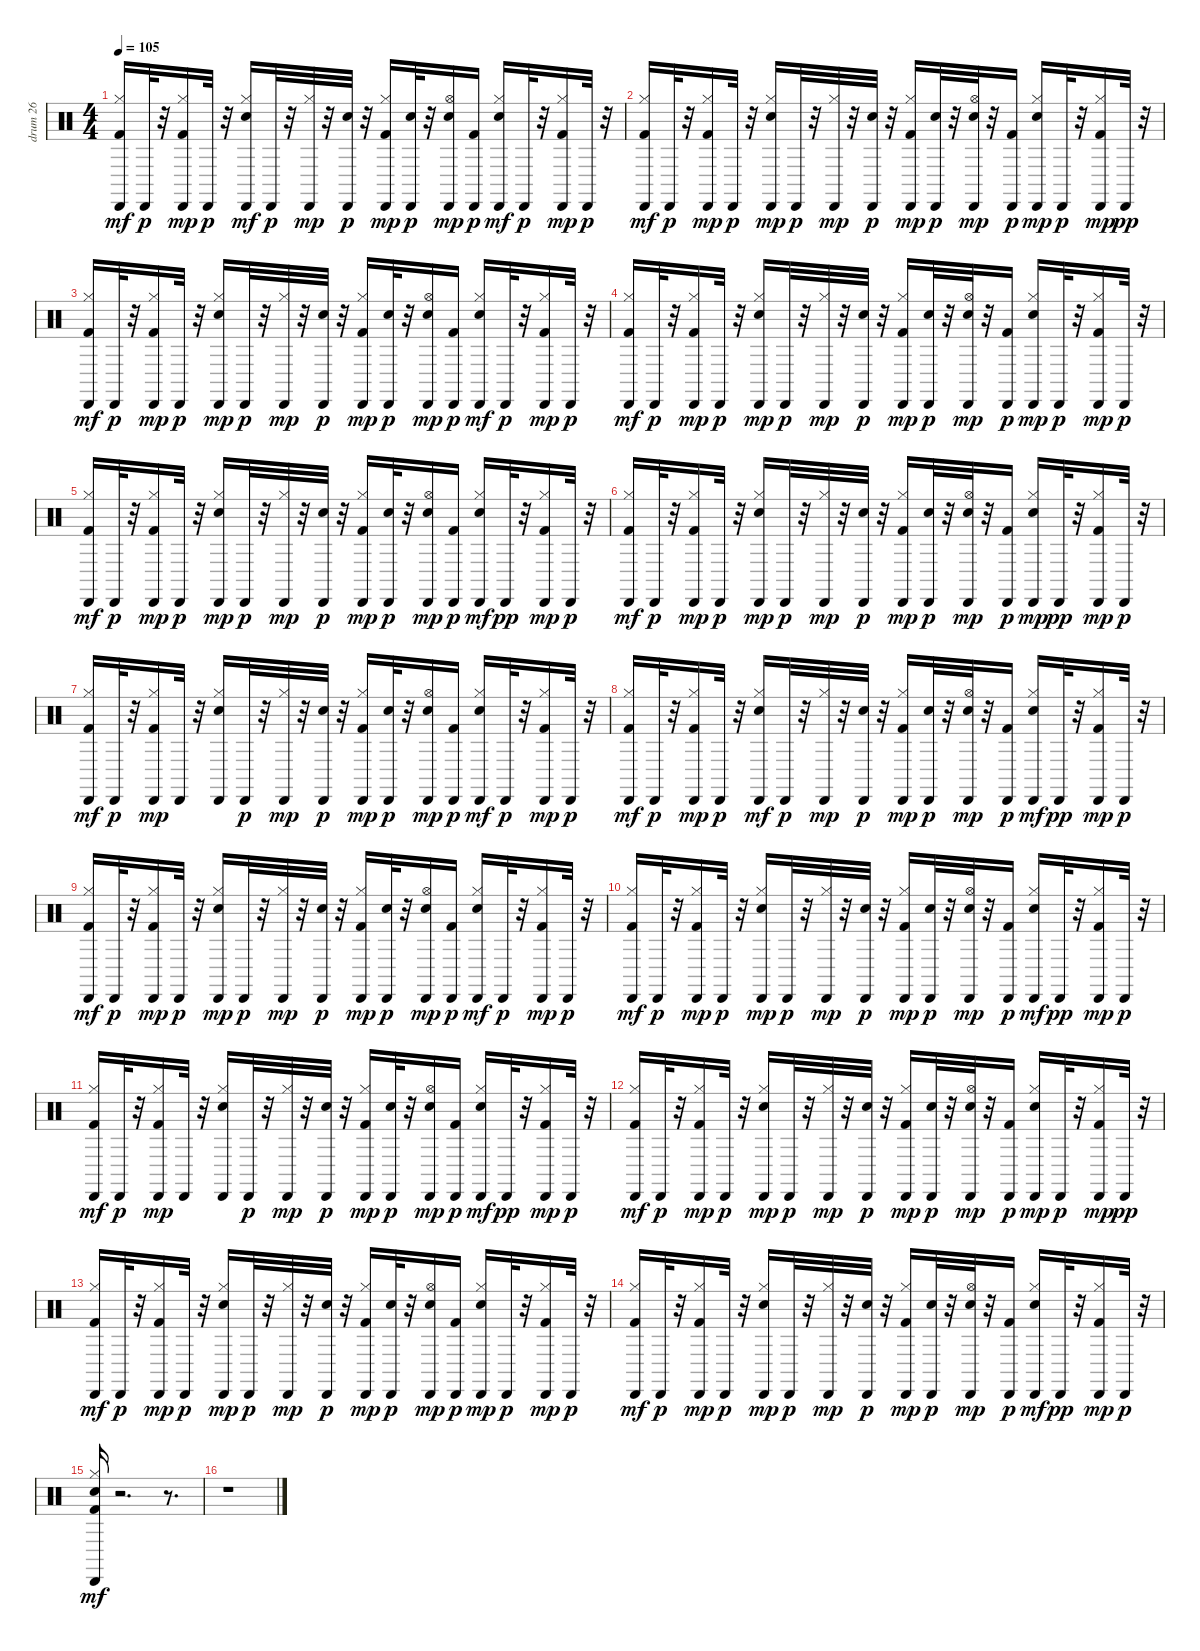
\track ("drum 26" "drum 26") {instrument percussion}
\staff {score}
\articulation defaults
\ts (4 4)
\tempo 105
\clef neutral
\ks c
("Kick (hit) 2" "Hi-Hat (closed)" "Cabasa (hit)").16{dy mf} "Cabasa (hit)".32{dy p} r.32 ("Kick (hit) 2" "Hi-Hat (closed)" "Cabasa (hit)").16{dy mp} "Cabasa (hit)".32{dy p} r.32 ("Snare (hit) 2" "Hi-Hat (closed)" "Cabasa (hit)").16{dy mf} "Cabasa (hit)".32{dy p} r.32 ("Hi-Hat (closed)" "Cabasa (hit)").32{dy mp} r.32 ("Electric Snare (hit)" "Cabasa (hit)").32{dy p} r.32 ("Kick (hit) 2" "Hi-Hat (closed)" "Cabasa (hit)").16{dy mp} ("Electric Snare (hit)" "Cabasa (hit)").32{dy p} r.32 ("Electric Snare (hit)" "Hi-Hat (open)" "Cabasa (hit)").16{dy mp} ("Kick (hit) 2" "Cabasa (hit)").16{dy p} ("Snare (hit) 2" "Hi-Hat (closed)" "Cabasa (hit)").16{dy mf} "Cabasa (hit)".32{dy p} r.32 ("Kick (hit) 2" "Hi-Hat (closed)" "Cabasa (hit)").16{dy mp} "Cabasa (hit)".32{dy p} r.32 |
("Kick (hit) 2" "Hi-Hat (closed)" "Cabasa (hit)").16{dy mf} "Cabasa (hit)".32{dy p} r.32 ("Kick (hit) 2" "Hi-Hat (closed)" "Cabasa (hit)").16{dy mp} "Cabasa (hit)".32{dy p} r.32 ("Snare (hit) 2" "Hi-Hat (closed)" "Cabasa (hit)").16{dy mp} "Cabasa (hit)".32{dy p} r.32 ("Hi-Hat (closed)" "Cabasa (hit)").32{dy mp} r.32 ("Electric Snare (hit)" "Cabasa (hit)").32{dy p} r.32 ("Kick (hit) 2" "Hi-Hat (closed)" "Cabasa (hit)").16{dy mp} ("Electric Snare (hit)" "Cabasa (hit)").32{dy p} r.32 ("Electric Snare (hit)" "Hi-Hat (open)" "Cabasa (hit)").32{dy mp} r.32 ("Kick (hit) 2" "Cabasa (hit)").16{dy p} ("Snare (hit) 2" "Hi-Hat (closed)" "Cabasa (hit)").16{dy mp} "Cabasa (hit)".32{dy p} r.32 ("Kick (hit) 2" "Hi-Hat (closed)" "Cabasa (hit)").16{dy mp} "Cabasa (hit)".32{dy pp} r.32 |
("Kick (hit) 2" "Hi-Hat (closed)" "Cabasa (hit)").16{dy mf} "Cabasa (hit)".32{dy p} r.32 ("Kick (hit) 2" "Hi-Hat (closed)" "Cabasa (hit)").16{dy mp} "Cabasa (hit)".32{dy p} r.32 ("Snare (hit) 2" "Hi-Hat (closed)" "Cabasa (hit)").16{dy mp} "Cabasa (hit)".32{dy p} r.32 ("Hi-Hat (closed)" "Cabasa (hit)").32{dy mp} r.32 ("Electric Snare (hit)" "Cabasa (hit)").32{dy p} r.32 ("Kick (hit) 2" "Hi-Hat (closed)" "Cabasa (hit)").16{dy mp} ("Electric Snare (hit)" "Cabasa (hit)").32{dy p} r.32 ("Electric Snare (hit)" "Hi-Hat (open)" "Cabasa (hit)").16{dy mp} ("Kick (hit) 2" "Cabasa (hit)").16{dy p} ("Snare (hit) 2" "Hi-Hat (closed)" "Cabasa (hit)").16{dy mf} "Cabasa (hit)".32{dy p} r.32 ("Kick (hit) 2" "Hi-Hat (closed)" "Cabasa (hit)").16{dy mp} "Cabasa (hit)".32{dy p} r.32 |
("Kick (hit) 2" "Hi-Hat (closed)" "Cabasa (hit)").16{dy mf} "Cabasa (hit)".32{dy p} r.32 ("Kick (hit) 2" "Hi-Hat (closed)" "Cabasa (hit)").16{dy mp} "Cabasa (hit)".32{dy p} r.32 ("Snare (hit) 2" "Hi-Hat (closed)" "Cabasa (hit)").16{dy mp} "Cabasa (hit)".32{dy p} r.32 ("Hi-Hat (closed)" "Cabasa (hit)").32{dy mp} r.32 ("Electric Snare (hit)" "Cabasa (hit)").32{dy p} r.32 ("Kick (hit) 2" "Hi-Hat (closed)" "Cabasa (hit)").16{dy mp} ("Electric Snare (hit)" "Cabasa (hit)").32{dy p} r.32 ("Electric Snare (hit)" "Hi-Hat (open)" "Cabasa (hit)").32{dy mp} r.32 ("Kick (hit) 2" "Cabasa (hit)").16{dy p} ("Snare (hit) 2" "Hi-Hat (closed)" "Cabasa (hit)").16{dy mp} "Cabasa (hit)".32{dy p} r.32 ("Kick (hit) 2" "Hi-Hat (closed)" "Cabasa (hit)").16{dy mp} "Cabasa (hit)".32{dy p} r.32 |
("Kick (hit) 2" "Hi-Hat (closed)" "Cabasa (hit)").16{dy mf} "Cabasa (hit)".32{dy p} r.32 ("Kick (hit) 2" "Hi-Hat (closed)" "Cabasa (hit)").16{dy mp} "Cabasa (hit)".32{dy p} r.32 ("Snare (hit) 2" "Hi-Hat (closed)" "Cabasa (hit)").16{dy mp} "Cabasa (hit)".32{dy p} r.32 ("Hi-Hat (closed)" "Cabasa (hit)").32{dy mp} r.32 ("Electric Snare (hit)" "Cabasa (hit)").32{dy p} r.32 ("Kick (hit) 2" "Hi-Hat (closed)" "Cabasa (hit)").16{dy mp} ("Electric Snare (hit)" "Cabasa (hit)").32{dy p} r.32 ("Electric Snare (hit)" "Hi-Hat (open)" "Cabasa (hit)").16{dy mp} ("Kick (hit) 2" "Cabasa (hit)").16{dy p} ("Snare (hit) 2" "Hi-Hat (closed)" "Cabasa (hit)").16{dy mf} "Cabasa (hit)".32{dy pp} r.32 ("Kick (hit) 2" "Hi-Hat (closed)" "Cabasa (hit)").16{dy mp} "Cabasa (hit)".32{dy p} r.32 |
("Kick (hit) 2" "Hi-Hat (closed)" "Cabasa (hit)").16{dy mf} "Cabasa (hit)".32{dy p} r.32 ("Kick (hit) 2" "Hi-Hat (closed)" "Cabasa (hit)").16{dy mp} "Cabasa (hit)".32{dy p} r.32 ("Snare (hit) 2" "Hi-Hat (closed)" "Cabasa (hit)").16{dy mp} "Cabasa (hit)".32{dy p} r.32 ("Hi-Hat (closed)" "Cabasa (hit)").32{dy mp} r.32 ("Electric Snare (hit)" "Cabasa (hit)").32{dy p} r.32 ("Kick (hit) 2" "Hi-Hat (closed)" "Cabasa (hit)").16{dy mp} ("Electric Snare (hit)" "Cabasa (hit)").32{dy p} r.32 ("Electric Snare (hit)" "Hi-Hat (open)" "Cabasa (hit)").32{dy mp} r.32 ("Kick (hit) 2" "Cabasa (hit)").16{dy p} ("Snare (hit) 2" "Hi-Hat (closed)" "Cabasa (hit)").16{dy mp} "Cabasa (hit)".32{dy pp} r.32 ("Kick (hit) 2" "Hi-Hat (closed)" "Cabasa (hit)").16{dy mp} "Cabasa (hit)".32{dy p} r.32 |
("Kick (hit) 2" "Hi-Hat (closed)" "Cabasa (hit)").16{dy mf} "Cabasa (hit)".32{dy p} r.32 ("Kick (hit) 2" "Hi-Hat (closed)" "Cabasa (hit)").16{dy mp} "Cabasa (hit)".32 r.32 ("Snare (hit) 2" "Hi-Hat (closed)" "Cabasa (hit)").16 "Cabasa (hit)".32{dy p} r.32 ("Hi-Hat (closed)" "Cabasa (hit)").32{dy mp} r.32 ("Electric Snare (hit)" "Cabasa (hit)").32{dy p} r.32 ("Kick (hit) 2" "Hi-Hat (closed)" "Cabasa (hit)").16{dy mp} ("Electric Snare (hit)" "Cabasa (hit)").32{dy p} r.32 ("Electric Snare (hit)" "Hi-Hat (open)" "Cabasa (hit)").16{dy mp} ("Kick (hit) 2" "Cabasa (hit)").16{dy p} ("Snare (hit) 2" "Hi-Hat (closed)" "Cabasa (hit)").16{dy mf} "Cabasa (hit)".32{dy p} r.32 ("Kick (hit) 2" "Hi-Hat (closed)" "Cabasa (hit)").16{dy mp} "Cabasa (hit)".32{dy p} r.32 |
("Kick (hit) 2" "Hi-Hat (closed)" "Cabasa (hit)").16{dy mf} "Cabasa (hit)".32{dy p} r.32 ("Kick (hit) 2" "Hi-Hat (closed)" "Cabasa (hit)").16{dy mp} "Cabasa (hit)".32{dy p} r.32 ("Snare (hit) 2" "Hi-Hat (closed)" "Cabasa (hit)").16{dy mf} "Cabasa (hit)".32{dy p} r.32 ("Hi-Hat (closed)" "Cabasa (hit)").32{dy mp} r.32 ("Electric Snare (hit)" "Cabasa (hit)").32{dy p} r.32 ("Kick (hit) 2" "Hi-Hat (closed)" "Cabasa (hit)").16{dy mp} ("Electric Snare (hit)" "Cabasa (hit)").32{dy p} r.32 ("Electric Snare (hit)" "Hi-Hat (open)" "Cabasa (hit)").32{dy mp} r.32 ("Kick (hit) 2" "Cabasa (hit)").16{dy p} ("Snare (hit) 2" "Hi-Hat (closed)" "Cabasa (hit)").16{dy mf} "Cabasa (hit)".32{dy pp} r.32 ("Kick (hit) 2" "Hi-Hat (closed)" "Cabasa (hit)").16{dy mp} "Cabasa (hit)".32{dy p} r.32 |
("Kick (hit) 2" "Hi-Hat (closed)" "Cabasa (hit)").16{dy mf} "Cabasa (hit)".32{dy p} r.32 ("Kick (hit) 2" "Hi-Hat (closed)" "Cabasa (hit)").16{dy mp} "Cabasa (hit)".32{dy p} r.32 ("Snare (hit) 2" "Hi-Hat (closed)" "Cabasa (hit)").16{dy mp} "Cabasa (hit)".32{dy p} r.32 ("Hi-Hat (closed)" "Cabasa (hit)").32{dy mp} r.32 ("Electric Snare (hit)" "Cabasa (hit)").32{dy p} r.32 ("Kick (hit) 2" "Hi-Hat (closed)" "Cabasa (hit)").16{dy mp} ("Electric Snare (hit)" "Cabasa (hit)").32{dy p} r.32 ("Electric Snare (hit)" "Hi-Hat (open)" "Cabasa (hit)").16{dy mp} ("Kick (hit) 2" "Cabasa (hit)").16{dy p} ("Snare (hit) 2" "Hi-Hat (closed)" "Cabasa (hit)").16{dy mf} "Cabasa (hit)".32{dy p} r.32 ("Kick (hit) 2" "Hi-Hat (closed)" "Cabasa (hit)").16{dy mp} "Cabasa (hit)".32{dy p} r.32 |
("Kick (hit) 2" "Hi-Hat (closed)" "Cabasa (hit)").16{dy mf} "Cabasa (hit)".32{dy p} r.32 ("Kick (hit) 2" "Hi-Hat (closed)" "Cabasa (hit)").16{dy mp} "Cabasa (hit)".32{dy p} r.32 ("Snare (hit) 2" "Hi-Hat (closed)" "Cabasa (hit)").16{dy mp} "Cabasa (hit)".32{dy p} r.32 ("Hi-Hat (closed)" "Cabasa (hit)").32{dy mp} r.32 ("Electric Snare (hit)" "Cabasa (hit)").32{dy p} r.32 ("Kick (hit) 2" "Hi-Hat (closed)" "Cabasa (hit)").16{dy mp} ("Electric Snare (hit)" "Cabasa (hit)").32{dy p} r.32 ("Electric Snare (hit)" "Hi-Hat (open)" "Cabasa (hit)").32{dy mp} r.32 ("Kick (hit) 2" "Cabasa (hit)").16{dy p} ("Snare (hit) 2" "Hi-Hat (closed)" "Cabasa (hit)").16{dy mf} "Cabasa (hit)".32{dy pp} r.32 ("Kick (hit) 2" "Hi-Hat (closed)" "Cabasa (hit)").16{dy mp} "Cabasa (hit)".32{dy p} r.32 |
("Kick (hit) 2" "Hi-Hat (closed)" "Cabasa (hit)").16{dy mf} "Cabasa (hit)".32{dy p} r.32 ("Kick (hit) 2" "Hi-Hat (closed)" "Cabasa (hit)").16{dy mp} "Cabasa (hit)".32 r.32 ("Snare (hit) 2" "Hi-Hat (closed)" "Cabasa (hit)").16 "Cabasa (hit)".32{dy p} r.32 ("Hi-Hat (closed)" "Cabasa (hit)").32{dy mp} r.32 ("Electric Snare (hit)" "Cabasa (hit)").32{dy p} r.32 ("Kick (hit) 2" "Hi-Hat (closed)" "Cabasa (hit)").16{dy mp} ("Electric Snare (hit)" "Cabasa (hit)").32{dy p} r.32 ("Electric Snare (hit)" "Hi-Hat (open)" "Cabasa (hit)").16{dy mp} ("Kick (hit) 2" "Cabasa (hit)").16{dy p} ("Snare (hit) 2" "Hi-Hat (closed)" "Cabasa (hit)").16{dy mf} "Cabasa (hit)".32{dy pp} r.32 ("Kick (hit) 2" "Hi-Hat (closed)" "Cabasa (hit)").16{dy mp} "Cabasa (hit)".32{dy p} r.32 |
("Kick (hit) 2" "Hi-Hat (closed)" "Cabasa (hit)").16{dy mf} "Cabasa (hit)".32{dy p} r.32 ("Kick (hit) 2" "Hi-Hat (closed)" "Cabasa (hit)").16{dy mp} "Cabasa (hit)".32{dy p} r.32 ("Snare (hit) 2" "Hi-Hat (closed)" "Cabasa (hit)").16{dy mp} "Cabasa (hit)".32{dy p} r.32 ("Hi-Hat (closed)" "Cabasa (hit)").32{dy mp} r.32 ("Electric Snare (hit)" "Cabasa (hit)").32{dy p} r.32 ("Kick (hit) 2" "Hi-Hat (closed)" "Cabasa (hit)").16{dy mp} ("Electric Snare (hit)" "Cabasa (hit)").32{dy p} r.32 ("Electric Snare (hit)" "Hi-Hat (open)" "Cabasa (hit)").32{dy mp} r.32 ("Kick (hit) 2" "Cabasa (hit)").16{dy p} ("Snare (hit) 2" "Hi-Hat (closed)" "Cabasa (hit)").16{dy mp} "Cabasa (hit)".32{dy p} r.32 ("Kick (hit) 2" "Hi-Hat (closed)" "Cabasa (hit)").16{dy mp} "Cabasa (hit)".32{dy pp} r.32 |
("Kick (hit) 2" "Hi-Hat (closed)" "Cabasa (hit)").16{dy mf} "Cabasa (hit)".32{dy p} r.32 ("Kick (hit) 2" "Hi-Hat (closed)" "Cabasa (hit)").16{dy mp} "Cabasa (hit)".32{dy p} r.32 ("Snare (hit) 2" "Hi-Hat (closed)" "Cabasa (hit)").16{dy mp} "Cabasa (hit)".32{dy p} r.32 ("Hi-Hat (closed)" "Cabasa (hit)").32{dy mp} r.32 ("Electric Snare (hit)" "Cabasa (hit)").32{dy p} r.32 ("Kick (hit) 2" "Hi-Hat (closed)" "Cabasa (hit)").16{dy mp} ("Electric Snare (hit)" "Cabasa (hit)").32{dy p} r.32 ("Electric Snare (hit)" "Hi-Hat (open)" "Cabasa (hit)").16{dy mp} ("Kick (hit) 2" "Cabasa (hit)").16{dy p} ("Snare (hit) 2" "Hi-Hat (closed)" "Cabasa (hit)").16{dy mp} "Cabasa (hit)".32{dy p} r.32 ("Kick (hit) 2" "Hi-Hat (closed)" "Cabasa (hit)").16{dy mp} "Cabasa (hit)".32{dy p} r.32 |
("Kick (hit) 2" "Hi-Hat (closed)" "Cabasa (hit)").16{dy mf} "Cabasa (hit)".32{dy p} r.32 ("Kick (hit) 2" "Hi-Hat (closed)" "Cabasa (hit)").16{dy mp} "Cabasa (hit)".32{dy p} r.32 ("Snare (hit) 2" "Hi-Hat (closed)" "Cabasa (hit)").16{dy mp} "Cabasa (hit)".32{dy p} r.32 ("Hi-Hat (closed)" "Cabasa (hit)").32{dy mp} r.32 ("Electric Snare (hit)" "Cabasa (hit)").32{dy p} r.32 ("Kick (hit) 2" "Hi-Hat (closed)" "Cabasa (hit)").16{dy mp} ("Electric Snare (hit)" "Cabasa (hit)").32{dy p} r.32 ("Electric Snare (hit)" "Hi-Hat (open)" "Cabasa (hit)").32{dy mp} r.32 ("Kick (hit) 2" "Cabasa (hit)").16{dy p} ("Snare (hit) 2" "Hi-Hat (closed)" "Cabasa (hit)").16{dy mf} "Cabasa (hit)".32{dy pp} r.32 ("Kick (hit) 2" "Hi-Hat (closed)" "Cabasa (hit)").16{dy mp} "Cabasa (hit)".32{dy p} r.32 |
("Kick (hit) 2" "Snare (hit) 2" "Hi-Hat (closed)" "Cabasa (hit)").16{dy mf} r.2{d} r.8{d} |
r.1
